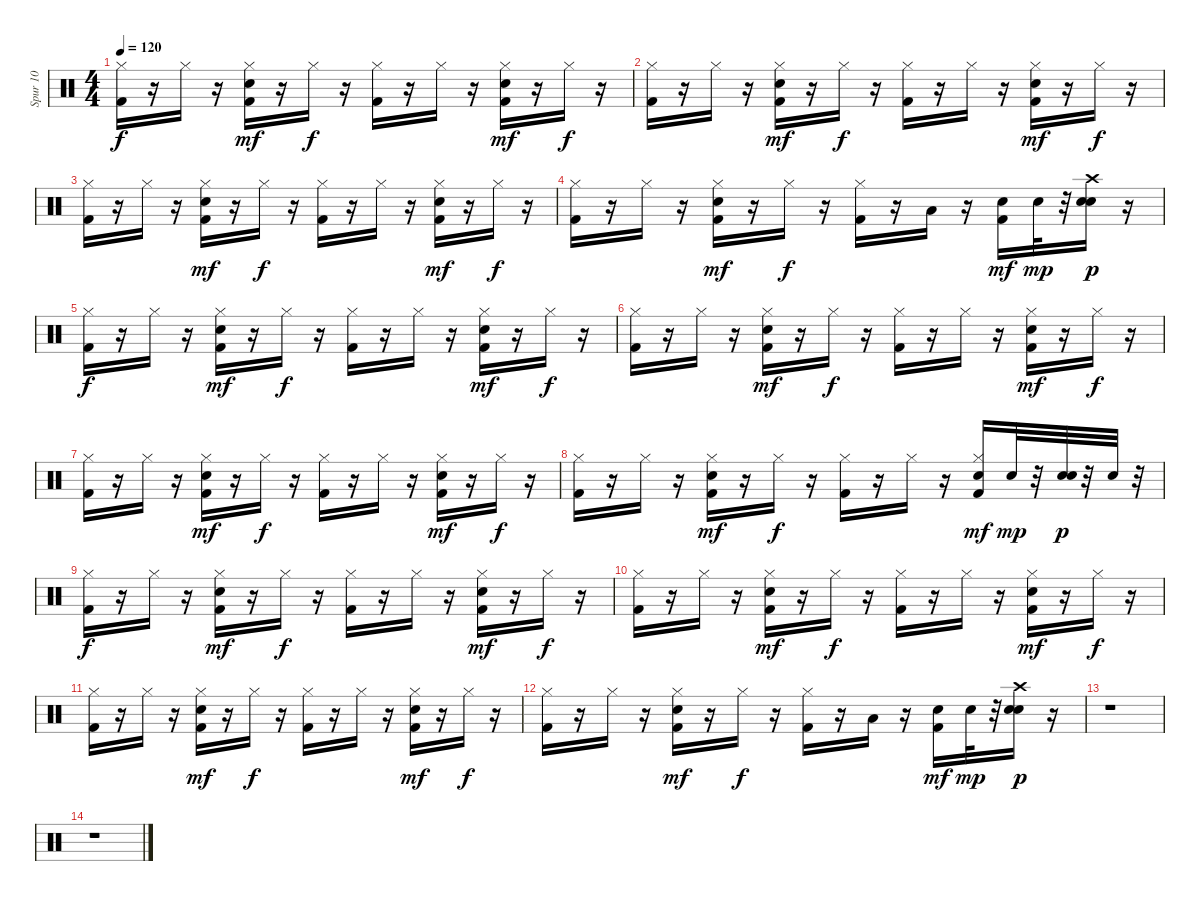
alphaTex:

\track ("Spur 10" "Spur 10") {instrument percussion}
\staff {score}
\articulation defaults
\ts (4 4)
\tempo 120
\clef neutral
\ks c
("Kick (hit) 2" "Hi-Hat (closed)").16{dy f} r.16 "Hi-Hat (closed)".16 r.16 ("Hi-Hat (closed)" "Kick (hit) 2" "Snare (hit) 2").16{dy mf} r.16 "Hi-Hat (closed)".16{dy f} r.16 ("Hi-Hat (closed)" "Kick (hit) 2").16 r.16 "Hi-Hat (closed)".16 r.16 ("Hi-Hat (closed)" "Kick (hit) 2" "Snare (hit) 2").16{dy mf} r.16 "Hi-Hat (closed)".16{dy f} r.16 |
("Hi-Hat (closed)" "Kick (hit) 2").16 r.16 "Hi-Hat (closed)".16 r.16 ("Hi-Hat (closed)" "Kick (hit) 2" "Snare (hit) 2").16{dy mf} r.16 "Hi-Hat (closed)".16{dy f} r.16 ("Hi-Hat (closed)" "Kick (hit) 2").16 r.16 "Hi-Hat (closed)".16 r.16 ("Hi-Hat (closed)" "Kick (hit) 2" "Snare (hit) 2").16{dy mf} r.16 "Hi-Hat (closed)".16{dy f} r.16 |
("Kick (hit) 2" "Hi-Hat (closed)").16 r.16 "Hi-Hat (closed)".16 r.16 ("Hi-Hat (closed)" "Kick (hit) 2" "Snare (hit) 2").16{dy mf} r.16 "Hi-Hat (closed)".16{dy f} r.16 ("Kick (hit) 2" "Hi-Hat (closed)").16 r.16 "Hi-Hat (closed)".16 r.16 ("Hi-Hat (closed)" "Kick (hit) 2" "Snare (hit) 2").16{dy mf} r.16 "Hi-Hat (closed)".16{dy f} r.16 |
("Hi-Hat (closed)" "Kick (hit) 2").16 r.16 "Hi-Hat (closed)".16 r.16 ("Hi-Hat (closed)" "Kick (hit) 2" "Snare (hit) 2").16{dy mf} r.16 "Hi-Hat (closed)".16{dy f} r.16 ("Kick (hit) 2" "Hi-Hat (closed)").16 r.16 "Low Tom (hit)".16 r.16 ("Kick (hit) 2" "Snare (hit) 2").16{dy mf} "Snare (hit) 2".32{dy mp} r.32 ("Crash high (hit)" "Snare (hit) 2" "Snare (hit) 2").16{dy p} r.16 |
("Kick (hit) 2" "Hi-Hat (closed)").16{dy f} r.16 "Hi-Hat (closed)".16 r.16 ("Hi-Hat (closed)" "Kick (hit) 2" "Snare (hit) 2").16{dy mf} r.16 "Hi-Hat (closed)".16{dy f} r.16 ("Hi-Hat (closed)" "Kick (hit) 2").16 r.16 "Hi-Hat (closed)".16 r.16 ("Hi-Hat (closed)" "Kick (hit) 2" "Snare (hit) 2").16{dy mf} r.16 "Hi-Hat (closed)".16{dy f} r.16 |
("Hi-Hat (closed)" "Kick (hit) 2").16 r.16 "Hi-Hat (closed)".16 r.16 ("Hi-Hat (closed)" "Kick (hit) 2" "Snare (hit) 2").16{dy mf} r.16 "Hi-Hat (closed)".16{dy f} r.16 ("Hi-Hat (closed)" "Kick (hit) 2").16 r.16 "Hi-Hat (closed)".16 r.16 ("Hi-Hat (closed)" "Kick (hit) 2" "Snare (hit) 2").16{dy mf} r.16 "Hi-Hat (closed)".16{dy f} r.16 |
("Kick (hit) 2" "Hi-Hat (closed)").16 r.16 "Hi-Hat (closed)".16 r.16 ("Hi-Hat (closed)" "Kick (hit) 2" "Snare (hit) 2").16{dy mf} r.16 "Hi-Hat (closed)".16{dy f} r.16 ("Kick (hit) 2" "Hi-Hat (closed)").16 r.16 "Hi-Hat (closed)".16 r.16 ("Hi-Hat (closed)" "Kick (hit) 2" "Snare (hit) 2").16{dy mf} r.16 "Hi-Hat (closed)".16{dy f} r.16 |
("Hi-Hat (closed)" "Kick (hit) 2").16 r.16 "Hi-Hat (closed)".16 r.16 ("Hi-Hat (closed)" "Kick (hit) 2" "Snare (hit) 2").16{dy mf} r.16 "Hi-Hat (closed)".16{dy f} r.16 ("Kick (hit) 2" "Hi-Hat (closed)").16 r.16 "Hi-Hat (closed)".16 r.16 ("Kick (hit) 2" "Snare (hit) 2" "Hi-Hat (closed)").16{dy mf} "Snare (hit) 2".32{dy mp} r.32 ("Snare (hit) 2" "Snare (hit) 2").32{dy p} r.32 "Snare (hit) 2".32 r.32 |
("Kick (hit) 2" "Hi-Hat (closed)").16{dy f} r.16 "Hi-Hat (closed)".16 r.16 ("Hi-Hat (closed)" "Kick (hit) 2" "Snare (hit) 2").16{dy mf} r.16 "Hi-Hat (closed)".16{dy f} r.16 ("Hi-Hat (closed)" "Kick (hit) 2").16 r.16 "Hi-Hat (closed)".16 r.16 ("Hi-Hat (closed)" "Kick (hit) 2" "Snare (hit) 2").16{dy mf} r.16 "Hi-Hat (closed)".16{dy f} r.16 |
("Hi-Hat (closed)" "Kick (hit) 2").16 r.16 "Hi-Hat (closed)".16 r.16 ("Hi-Hat (closed)" "Kick (hit) 2" "Snare (hit) 2").16{dy mf} r.16 "Hi-Hat (closed)".16{dy f} r.16 ("Hi-Hat (closed)" "Kick (hit) 2").16 r.16 "Hi-Hat (closed)".16 r.16 ("Hi-Hat (closed)" "Kick (hit) 2" "Snare (hit) 2").16{dy mf} r.16 "Hi-Hat (closed)".16{dy f} r.16 |
("Kick (hit) 2" "Hi-Hat (closed)").16 r.16 "Hi-Hat (closed)".16 r.16 ("Hi-Hat (closed)" "Kick (hit) 2" "Snare (hit) 2").16{dy mf} r.16 "Hi-Hat (closed)".16{dy f} r.16 ("Kick (hit) 2" "Hi-Hat (closed)").16 r.16 "Hi-Hat (closed)".16 r.16 ("Hi-Hat (closed)" "Kick (hit) 2" "Snare (hit) 2").16{dy mf} r.16 "Hi-Hat (closed)".16{dy f} r.16 |
("Hi-Hat (closed)" "Kick (hit) 2").16 r.16 "Hi-Hat (closed)".16 r.16 ("Hi-Hat (closed)" "Kick (hit) 2" "Snare (hit) 2").16{dy mf} r.16 "Hi-Hat (closed)".16{dy f} r.16 ("Kick (hit) 2" "Hi-Hat (closed)").16 r.16 "Low Tom (hit)".16 r.16 ("Kick (hit) 2" "Snare (hit) 2").16{dy mf} "Snare (hit) 2".32{dy mp} r.32 ("Crash high (hit)" "Snare (hit) 2" "Snare (hit) 2").16{dy p} r.16 |
r.1 |
r.1
